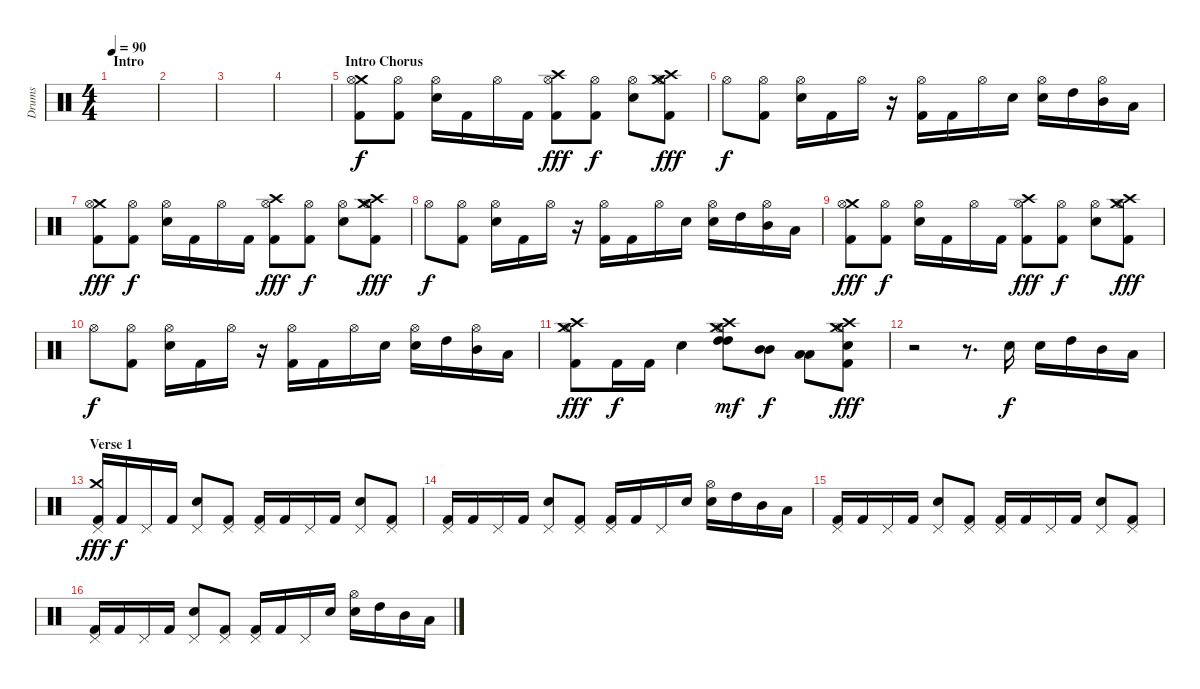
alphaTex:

\track ("Drums" "Drums") {instrument percussion}
\staff {score}
\articulation defaults
\ts (4 4)
\section ("" "Intro")
\tempo 90
\clef neutral
\ks c
|
|
|
|
\section ("" "Intro Chorus")
("Kick (hit) 2" "Crash medium (hit)" "Hi-Hat (open)").8 ("Kick (hit) 2" "Hi-Hat (open)").8{dy f} ("Snare (hit) 2" "Hi-Hat (open)").16 "Kick (hit) 2".16 "Hi-Hat (open)".16 "Kick (hit) 2".16 ("Kick (hit) 2" "Crash high (hit)" "Hi-Hat (open)").8{dy fff} ("Kick (hit) 2" "Hi-Hat (open)").8{dy f} ("Snare (hit) 2" "Hi-Hat (open)").8 ("Kick (hit) 2" "Crash medium (hit)" "Crash high (hit)" "Hi-Hat (open)").8{dy fff} |
"Hi-Hat (open)".8{dy f} ("Kick (hit) 2" "Hi-Hat (open)").8 ("Snare (hit) 2" "Hi-Hat (open)").16 "Kick (hit) 2".16 "Hi-Hat (open)".16 r.16 ("Kick (hit) 2" "Hi-Hat (open)").16 "Kick (hit) 2".16 "Hi-Hat (open)".16 "Snare (hit) 2".16 ("Snare (hit) 2" "Hi-Hat (open)").16 "High Tom (hit)".16 ("Mid Tom (hit)" "Hi-Hat (open)").16 "Low Tom (hit)".16 |
("Kick (hit) 2" "Crash medium (hit)" "Hi-Hat (open)").8{dy fff} ("Kick (hit) 2" "Hi-Hat (open)").8{dy f} ("Snare (hit) 2" "Hi-Hat (open)").16 "Kick (hit) 2".16 "Hi-Hat (open)".16 "Kick (hit) 2".16 ("Kick (hit) 2" "Crash high (hit)" "Hi-Hat (open)").8{dy fff} ("Kick (hit) 2" "Hi-Hat (open)").8{dy f} ("Snare (hit) 2" "Hi-Hat (open)").8 ("Kick (hit) 2" "Crash medium (hit)" "Crash high (hit)" "Hi-Hat (open)").8{dy fff} |
"Hi-Hat (open)".8{dy f} ("Kick (hit) 2" "Hi-Hat (open)").8 ("Snare (hit) 2" "Hi-Hat (open)").16 "Kick (hit) 2".16 "Hi-Hat (open)".16 r.16 ("Kick (hit) 2" "Hi-Hat (open)").16 "Kick (hit) 2".16 "Hi-Hat (open)".16 "Snare (hit) 2".16 ("Snare (hit) 2" "Hi-Hat (open)").16 "High Tom (hit)".16 ("Mid Tom (hit)" "Hi-Hat (open)").16 "Low Tom (hit)".16 |
("Kick (hit) 2" "Crash medium (hit)" "Hi-Hat (open)").8{dy fff} ("Kick (hit) 2" "Hi-Hat (open)").8{dy f} ("Snare (hit) 2" "Hi-Hat (open)").16 "Kick (hit) 2".16 "Hi-Hat (open)".16 "Kick (hit) 2".16 ("Kick (hit) 2" "Crash high (hit)" "Hi-Hat (open)").8{dy fff} ("Kick (hit) 2" "Hi-Hat (open)").8{dy f} ("Snare (hit) 2" "Hi-Hat (open)").8 ("Kick (hit) 2" "Crash medium (hit)" "Crash high (hit)" "Hi-Hat (open)").8{dy fff} |
"Hi-Hat (open)".8{dy f} ("Kick (hit) 2" "Hi-Hat (open)").8 ("Snare (hit) 2" "Hi-Hat (open)").16 "Kick (hit) 2".16 "Hi-Hat (open)".16 r.16 ("Kick (hit) 2" "Hi-Hat (open)").16 "Kick (hit) 2".16 "Hi-Hat (open)".16 "Snare (hit) 2".16 ("Snare (hit) 2" "Hi-Hat (open)").16 "High Tom (hit)".16 ("Mid Tom (hit)" "Hi-Hat (open)").16 "Low Tom (hit)".16 |
("Kick (hit) 2" "Crash medium (hit)" "Crash high (hit)" "Hi-Hat (open)").8{dy fff} "Kick (hit) 2".16{dy f} "Kick (hit) 2".16 "Snare (hit) 2".4 ("High Tom (hit)" "High Tom (hit)" "Crash medium (hit)" "Crash high (hit)" "Hi-Hat (open)").8{bd 240 dy mf} ("Mid Tom (hit)" "Mid Tom (hit)").8{bd 240 dy f} ("Low Tom (hit)" "Low Tom (hit)").8{bd 240} ("Snare (hit) 2" "Kick (hit) 2" "Crash medium (hit)" "Crash high (hit)" "Hi-Hat (open)").8{dy fff} |
r.2 r.8{d} "Snare (hit) 2".16{dy f} "Snare (hit) 2".16 "High Tom (hit)".16 "Mid Tom (hit)".16 "Low Tom (hit)".16 |
\section ("" "Verse 1")
("Kick (hit) 2" "Crash medium (hit)" "Pedal Hi-Hat (hit)").16{dy fff} "Kick (hit) 2".16{dy f} "Pedal Hi-Hat (hit)".16 "Kick (hit) 2".16 ("Snare (hit) 2" "Pedal Hi-Hat (hit)").8 ("Kick (hit) 2" "Pedal Hi-Hat (hit)").8 ("Kick (hit) 2" "Pedal Hi-Hat (hit)").16 "Kick (hit) 2".16 "Pedal Hi-Hat (hit)".16 "Kick (hit) 2".16 ("Snare (hit) 2" "Pedal Hi-Hat (hit)").8 ("Kick (hit) 2" "Pedal Hi-Hat (hit)").8 |
("Kick (hit) 2" "Pedal Hi-Hat (hit)").16 "Kick (hit) 2".16 "Pedal Hi-Hat (hit)".16 "Kick (hit) 2".16 ("Snare (hit) 2" "Pedal Hi-Hat (hit)").8 ("Kick (hit) 2" "Pedal Hi-Hat (hit)").8 ("Kick (hit) 2" "Pedal Hi-Hat (hit)").16 "Kick (hit) 2".16 "Pedal Hi-Hat (hit)".16 "Snare (hit) 2".16 ("Snare (hit) 2" "Hi-Hat (open)").16 "High Tom (hit)".16 "Mid Tom (hit)".16 "Low Tom (hit)".16 |
("Kick (hit) 2" "Pedal Hi-Hat (hit)").16 "Kick (hit) 2".16 "Pedal Hi-Hat (hit)".16 "Kick (hit) 2".16 ("Snare (hit) 2" "Pedal Hi-Hat (hit)").8 ("Kick (hit) 2" "Pedal Hi-Hat (hit)").8 ("Kick (hit) 2" "Pedal Hi-Hat (hit)").16 "Kick (hit) 2".16 "Pedal Hi-Hat (hit)".16 "Kick (hit) 2".16 ("Snare (hit) 2" "Pedal Hi-Hat (hit)").8 ("Kick (hit) 2" "Pedal Hi-Hat (hit)").8 |
("Kick (hit) 2" "Pedal Hi-Hat (hit)").16 "Kick (hit) 2".16 "Pedal Hi-Hat (hit)".16 "Kick (hit) 2".16 ("Snare (hit) 2" "Pedal Hi-Hat (hit)").8 ("Kick (hit) 2" "Pedal Hi-Hat (hit)").8 ("Kick (hit) 2" "Pedal Hi-Hat (hit)").16 "Kick (hit) 2".16 "Pedal Hi-Hat (hit)".16 "Snare (hit) 2".16 ("Snare (hit) 2" "Hi-Hat (open)").16 "High Tom (hit)".16 "Mid Tom (hit)".16 "Low Tom (hit)".16
